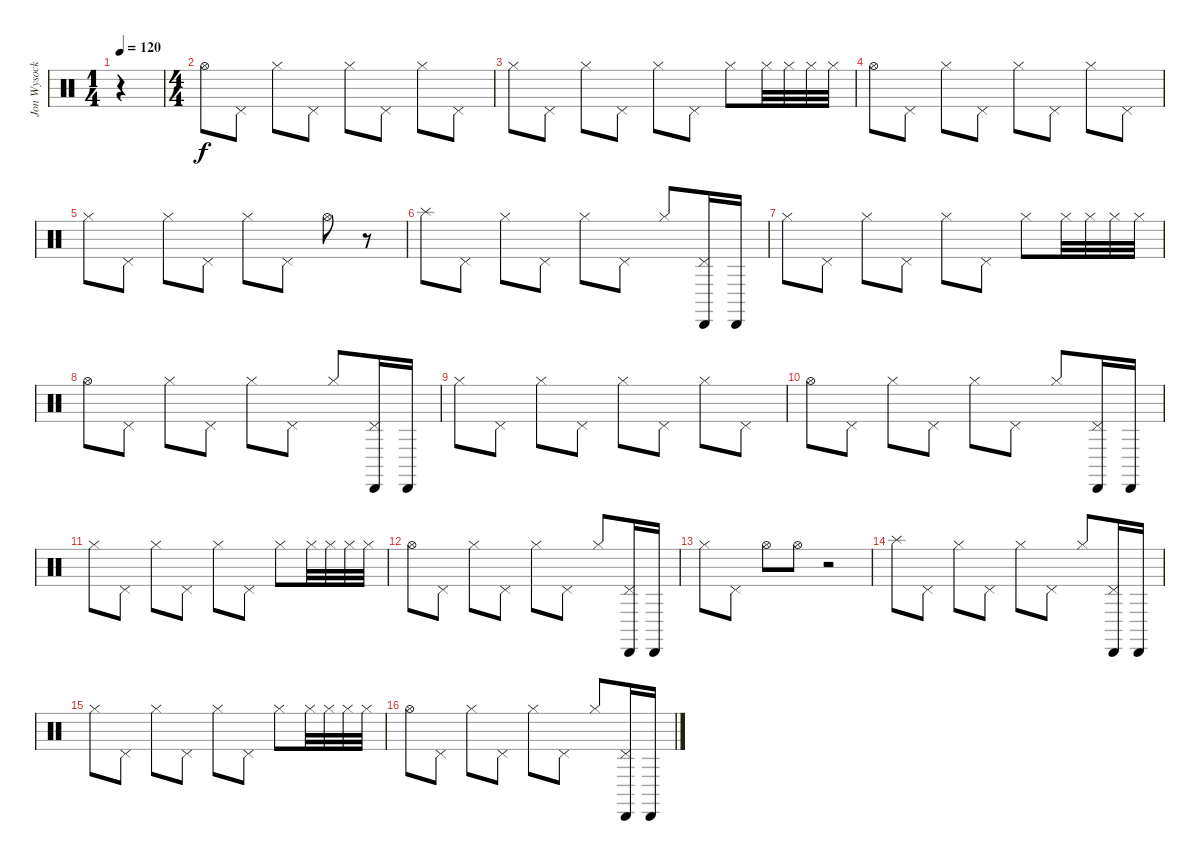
\track ("Jon Wysocki cymbals" "Jon Wysock") {instrument percussion}
\staff {score}
\articulation defaults
\ts (1 4)
\tempo 120
\clef neutral
\ks c
r.4{dy f} |
\ts (4 4)
"Hi-Hat (open)".8 "Pedal Hi-Hat (hit)".8 "Hi-Hat (closed)".8 "Pedal Hi-Hat (hit)".8 "Hi-Hat (closed)".8 "Pedal Hi-Hat (hit)".8 "Hi-Hat (closed)".8 "Pedal Hi-Hat (hit)".8 |
"Hi-Hat (closed)".8 "Pedal Hi-Hat (hit)".8 "Hi-Hat (closed)".8 "Pedal Hi-Hat (hit)".8 "Hi-Hat (closed)".8 "Pedal Hi-Hat (hit)".8 "Hi-Hat (closed)".8 "Hi-Hat (closed)".32 "Hi-Hat (closed)".32 "Hi-Hat (closed)".32 "Hi-Hat (closed)".32 |
"Hi-Hat (open)".8 "Pedal Hi-Hat (hit)".8 "Hi-Hat (closed)".8 "Pedal Hi-Hat (hit)".8 "Hi-Hat (closed)".8 "Pedal Hi-Hat (hit)".8 "Hi-Hat (closed)".8 "Pedal Hi-Hat (hit)".8 |
"Hi-Hat (closed)".8 "Pedal Hi-Hat (hit)".8 "Hi-Hat (closed)".8 "Pedal Hi-Hat (hit)".8 "Hi-Hat (closed)".8 "Pedal Hi-Hat (hit)".8 "Hi-Hat (open)".8 r.8 |
"Splash (hit)".8 "Pedal Hi-Hat (hit)".8 "Hi-Hat (closed)".8 "Pedal Hi-Hat (hit)".8 "Hi-Hat (closed)".8 "Pedal Hi-Hat (hit)".8 "Hi-Hat (closed)".8 ("Cabasa (hit)" "Pedal Hi-Hat (hit)").16 "Cabasa (hit)".16 |
"Hi-Hat (closed)".8 "Pedal Hi-Hat (hit)".8 "Hi-Hat (closed)".8 "Pedal Hi-Hat (hit)".8 "Hi-Hat (closed)".8 "Pedal Hi-Hat (hit)".8 "Hi-Hat (closed)".8 "Hi-Hat (closed)".32 "Hi-Hat (closed)".32 "Hi-Hat (closed)".32 "Hi-Hat (closed)".32 |
"Hi-Hat (open)".8 "Pedal Hi-Hat (hit)".8 "Hi-Hat (closed)".8 "Pedal Hi-Hat (hit)".8 "Hi-Hat (closed)".8 "Pedal Hi-Hat (hit)".8 "Hi-Hat (closed)".8 ("Cabasa (hit)" "Pedal Hi-Hat (hit)").16 "Cabasa (hit)".16 |
"Hi-Hat (closed)".8 "Pedal Hi-Hat (hit)".8 "Hi-Hat (closed)".8 "Pedal Hi-Hat (hit)".8 "Hi-Hat (closed)".8 "Pedal Hi-Hat (hit)".8 "Hi-Hat (closed)".8 "Pedal Hi-Hat (hit)".8 |
"Hi-Hat (open)".8 "Pedal Hi-Hat (hit)".8 "Hi-Hat (closed)".8 "Pedal Hi-Hat (hit)".8 "Hi-Hat (closed)".8 "Pedal Hi-Hat (hit)".8 "Hi-Hat (closed)".8 ("Cabasa (hit)" "Pedal Hi-Hat (hit)").16 "Cabasa (hit)".16 |
"Hi-Hat (closed)".8 "Pedal Hi-Hat (hit)".8 "Hi-Hat (closed)".8 "Pedal Hi-Hat (hit)".8 "Hi-Hat (closed)".8 "Pedal Hi-Hat (hit)".8 "Hi-Hat (closed)".8 "Hi-Hat (closed)".32 "Hi-Hat (closed)".32 "Hi-Hat (closed)".32 "Hi-Hat (closed)".32 |
"Hi-Hat (open)".8 "Pedal Hi-Hat (hit)".8 "Hi-Hat (closed)".8 "Pedal Hi-Hat (hit)".8 "Hi-Hat (closed)".8 "Pedal Hi-Hat (hit)".8 "Hi-Hat (closed)".8 ("Cabasa (hit)" "Pedal Hi-Hat (hit)").16 "Cabasa (hit)".16 |
"Hi-Hat (closed)".8 "Pedal Hi-Hat (hit)".8 "Hi-Hat (open)".8 "Hi-Hat (open)".8 r.2 |
"Splash (hit)".8 "Pedal Hi-Hat (hit)".8 "Hi-Hat (closed)".8 "Pedal Hi-Hat (hit)".8 "Hi-Hat (closed)".8 "Pedal Hi-Hat (hit)".8 "Hi-Hat (closed)".8 ("Cabasa (hit)" "Pedal Hi-Hat (hit)").16 "Cabasa (hit)".16 |
"Hi-Hat (closed)".8 "Pedal Hi-Hat (hit)".8 "Hi-Hat (closed)".8 "Pedal Hi-Hat (hit)".8 "Hi-Hat (closed)".8 "Pedal Hi-Hat (hit)".8 "Hi-Hat (closed)".8 "Hi-Hat (closed)".32 "Hi-Hat (closed)".32 "Hi-Hat (closed)".32 "Hi-Hat (closed)".32 |
"Hi-Hat (open)".8 "Pedal Hi-Hat (hit)".8 "Hi-Hat (closed)".8 "Pedal Hi-Hat (hit)".8 "Hi-Hat (closed)".8 "Pedal Hi-Hat (hit)".8 "Hi-Hat (closed)".8 ("Cabasa (hit)" "Pedal Hi-Hat (hit)").16 "Cabasa (hit)".16
